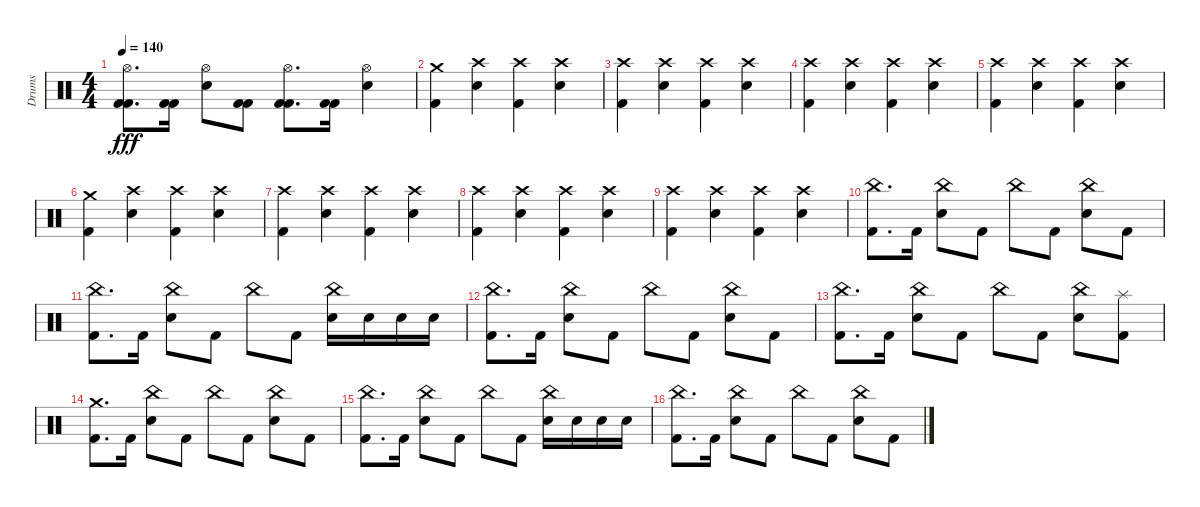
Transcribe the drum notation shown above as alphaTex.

\track ("Drums" "Drums") {instrument percussion}
\staff {score}
\articulation defaults
\ts (4 4)
\tempo 140
\clef neutral
\ks c
("Hi-Hat (open)" "Kick (hit) 2" "Kick (hit) 2").8{d dy fff} ("Kick (hit) 2" "Kick (hit) 2").16 ("Hi-Hat (open)" "Snare (hit) 2").8 ("Kick (hit) 2" "Kick (hit) 2").8 ("Hi-Hat (open)" "Kick (hit) 2" "Kick (hit) 2").8{d} ("Kick (hit) 2" "Kick (hit) 2").16 ("Hi-Hat (open)" "Snare (hit) 2").4 |
("Crash medium (hit)" "Kick (hit) 2").4 ("Crash high (hit)" "Snare (hit) 2").4 ("Crash high (hit)" "Kick (hit) 2").4 ("Crash high (hit)" "Snare (hit) 2").4 |
("Crash high (hit)" "Kick (hit) 2").4 ("Crash high (hit)" "Snare (hit) 2").4 ("Crash high (hit)" "Kick (hit) 2").4 ("Crash high (hit)" "Snare (hit) 2").4 |
("Crash high (hit)" "Kick (hit) 2").4 ("Crash high (hit)" "Snare (hit) 2").4 ("Crash high (hit)" "Kick (hit) 2").4 ("Crash high (hit)" "Snare (hit) 2").4 |
("Crash high (hit)" "Kick (hit) 2").4 ("Crash high (hit)" "Snare (hit) 2").4 ("Crash high (hit)" "Kick (hit) 2").4 ("Crash high (hit)" "Snare (hit) 2").4 |
("Crash medium (hit)" "Kick (hit) 2").4 ("Crash high (hit)" "Snare (hit) 2").4 ("Crash high (hit)" "Kick (hit) 2").4 ("Crash high (hit)" "Snare (hit) 2").4 |
("Crash high (hit)" "Kick (hit) 2").4 ("Crash high (hit)" "Snare (hit) 2").4 ("Crash high (hit)" "Kick (hit) 2").4 ("Crash high (hit)" "Snare (hit) 2").4 |
("Crash high (hit)" "Kick (hit) 2").4 ("Crash high (hit)" "Snare (hit) 2").4 ("Crash high (hit)" "Kick (hit) 2").4 ("Crash high (hit)" "Snare (hit) 2").4 |
("Crash high (hit)" "Kick (hit) 2").4 ("Crash high (hit)" "Snare (hit) 2").4 ("Crash high (hit)" "Kick (hit) 2").4 ("Crash high (hit)" "Snare (hit) 2").4 |
("China (hit)" "Kick (hit) 2").8{d} "Kick (hit) 2".16 ("China (hit)" "Snare (hit) 2").8 "Kick (hit) 2".8 "China (hit)".8 "Kick (hit) 2".8 ("China (hit)" "Snare (hit) 2").8 "Kick (hit) 2".8 |
("China (hit)" "Kick (hit) 2").8{d} "Kick (hit) 2".16 ("China (hit)" "Snare (hit) 2").8 "Kick (hit) 2".8 "China (hit)".8 "Kick (hit) 2".8 ("China (hit)" "Snare (hit) 2").16 "Snare (hit) 2".16 "Snare (hit) 2".16 "Snare (hit) 2".16 |
("China (hit)" "Kick (hit) 2").8{d} "Kick (hit) 2".16 ("China (hit)" "Snare (hit) 2").8 "Kick (hit) 2".8 "China (hit)".8 "Kick (hit) 2".8 ("China (hit)" "Snare (hit) 2").8 "Kick (hit) 2".8 |
("China (hit)" "Kick (hit) 2").8{d} "Kick (hit) 2".16 ("China (hit)" "Snare (hit) 2").8 "Kick (hit) 2".8 "China (hit)".8 "Kick (hit) 2".8 ("China (hit)" "Snare (hit) 2").8 ("Splash (hit)" "Kick (hit) 2").8 |
("Crash medium (hit)" "Kick (hit) 2").8{d} "Kick (hit) 2".16 ("China (hit)" "Snare (hit) 2").8 "Kick (hit) 2".8 "China (hit)".8 "Kick (hit) 2".8 ("China (hit)" "Snare (hit) 2").8 "Kick (hit) 2".8 |
("China (hit)" "Kick (hit) 2").8{d} "Kick (hit) 2".16 ("China (hit)" "Snare (hit) 2").8 "Kick (hit) 2".8 "China (hit)".8 "Kick (hit) 2".8 ("China (hit)" "Snare (hit) 2").16 "Snare (hit) 2".16 "Snare (hit) 2".16 "Snare (hit) 2".16 |
("China (hit)" "Kick (hit) 2").8{d} "Kick (hit) 2".16 ("China (hit)" "Snare (hit) 2").8 "Kick (hit) 2".8 "China (hit)".8 "Kick (hit) 2".8 ("China (hit)" "Snare (hit) 2").8 "Kick (hit) 2".8
